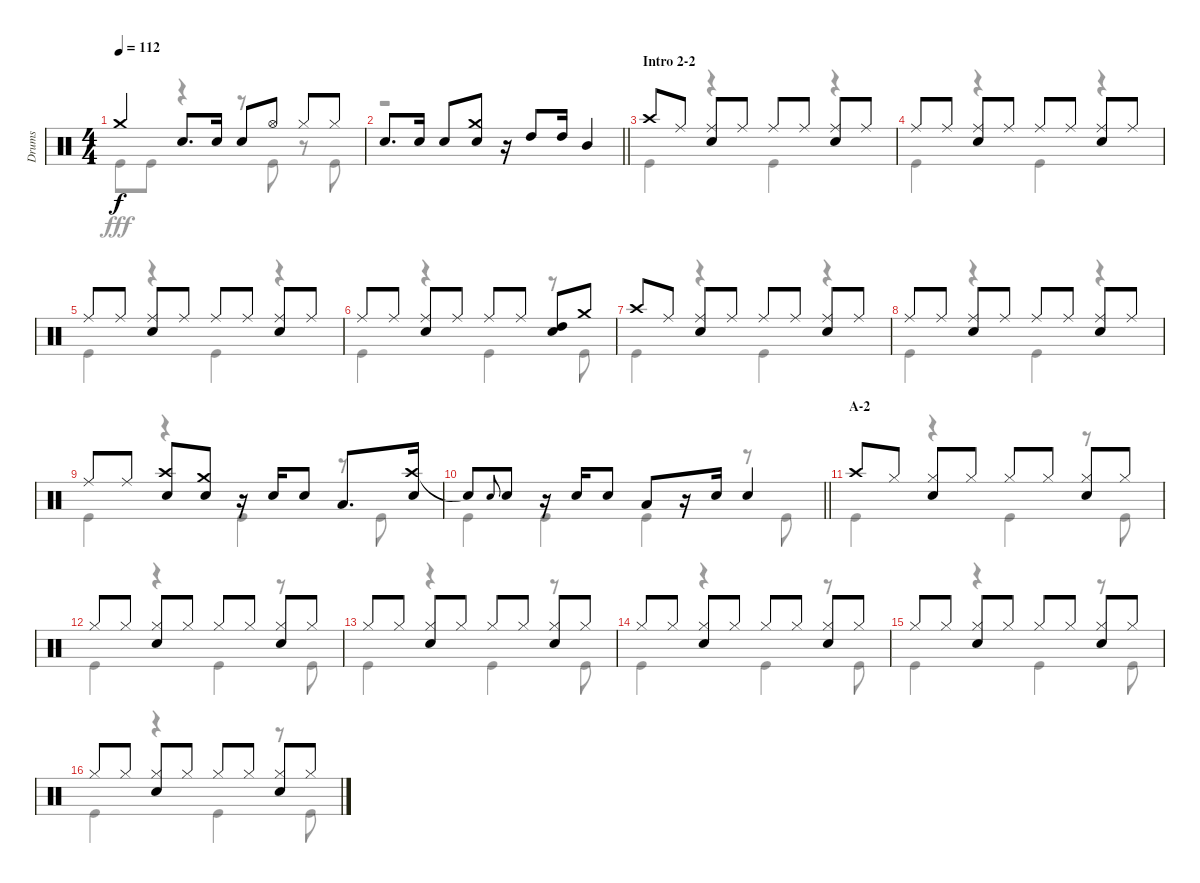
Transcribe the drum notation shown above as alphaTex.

\track ("Drums" "Drums") {instrument percussion}
\staff {score}
\articulation defaults
\voice
\ts (4 4)
\tempo 112
\clef neutral
\ks c "Crash medium (hit)".4{dy f} "Snare (hit) 2".8{d} "Snare (hit) 2".16 "Snare (hit) 2".8 "Hi-Hat (open)".8 "Hi-Hat (closed)".8 "Hi-Hat (closed)".8
|
\barLineRight lightlight "Snare (hit) 2".8{d} "Snare (hit) 2".16 "Snare (hit) 2".8
("Crash medium (hit)" "Snare (hit) 2").8 r.16 "High Tom (hit)".8 "High Tom (hit)".16 "Mid Tom (hit)".4 |
\section ("" "Intro 2-2")
"Crash high (hit)".8 "Ride (middle)".8 ("Ride (middle)" "Snare (hit) 2").8 "Ride (middle)".8 "Ride (middle)".8 "Ride (middle)".8 ("Ride (middle)" "Snare (hit) 2").8 "Ride (middle)".8 |
"Ride (middle)".8 "Ride (middle)".8 ("Ride (middle)" "Snare (hit) 2").8 "Ride (middle)".8 "Ride (middle)".8 "Ride (middle)".8 ("Ride (middle)" "Snare (hit) 2").8 "Ride (middle)".8 |
"Ride (middle)".8 "Ride (middle)".8 ("Ride (middle)" "Snare (hit) 2").8 "Ride (middle)".8 "Ride (middle)".8 "Ride (middle)".8 ("Ride (middle)" "Snare (hit) 2").8 "Ride (middle)".8 |
"Ride (middle)".8 "Ride (middle)".8 ("Ride (middle)" "Snare (hit) 2").8 "Ride (middle)".8 "Ride (middle)".8 "Ride (middle)".8 ("High Tom (hit)" "Snare (hit) 2").8 "Crash medium (hit)".8 |
"Crash high (hit)".8 "Ride (middle)".8 ("Ride (middle)" "Snare (hit) 2").8 "Ride (middle)".8 "Ride (middle)".8 "Ride (middle)".8 ("Ride (middle)" "Snare (hit) 2").8 "Ride (middle)".8 |
"Ride (middle)".8 "Ride (middle)".8 ("Ride (middle)" "Snare (hit) 2").8 "Ride (middle)".8 "Ride (middle)".8 "Ride (middle)".8 ("Ride (middle)" "Snare (hit) 2").8 "Ride (middle)".8 |
"Ride (middle)".8 "Ride (middle)".8 ("Crash high (hit)" "Snare (hit) 2").8 ("Crash medium (hit)" "Snare (hit) 2").8 r.16 "Snare (hit) 2".16 "Snare (hit) 2".8 "Low Tom (hit)".8{d} ("Crash high (hit)" "Snare (hit) 2").16 |
\barLineRight lightlight "Snare (hit)"{t}.8 "Snare (hit) 2".8{gr onbeat} "Snare (hit) 2".8
r.16 "Snare (hit) 2".16 "Snare (hit) 2".8 "Low Tom (hit)".8 r.16 "Snare (hit) 2".16 "Snare (hit) 2".4 |
\section ("" "A-2")
"Crash high (hit)".8 "Hi-Hat (closed)".8 ("Hi-Hat (closed)" "Snare (hit) 2").8 "Hi-Hat (closed)".8 "Hi-Hat (closed)".8 "Hi-Hat (closed)".8 ("Hi-Hat (closed)" "Snare (hit) 2").8 "Hi-Hat (closed)".8 |
"Hi-Hat (closed)".8 "Hi-Hat (closed)".8 ("Hi-Hat (closed)" "Snare (hit) 2").8 "Hi-Hat (closed)".8 "Hi-Hat (closed)".8 "Hi-Hat (closed)".8 ("Hi-Hat (closed)" "Snare (hit) 2").8 "Hi-Hat (closed)".8 |
"Hi-Hat (closed)".8 "Hi-Hat (closed)".8 ("Hi-Hat (closed)" "Snare (hit) 2").8 "Hi-Hat (closed)".8 "Hi-Hat (closed)".8 "Hi-Hat (closed)".8 ("Hi-Hat (closed)" "Snare (hit) 2").8 "Hi-Hat (closed)".8 |
"Hi-Hat (closed)".8 "Hi-Hat (closed)".8 ("Hi-Hat (closed)" "Snare (hit) 2").8 "Hi-Hat (closed)".8 "Hi-Hat (closed)".8 "Hi-Hat (closed)".8 ("Hi-Hat (closed)" "Snare (hit) 2").8 "Hi-Hat (closed)".8 |
"Hi-Hat (closed)".8 "Hi-Hat (closed)".8 ("Hi-Hat (closed)" "Snare (hit) 2").8 "Hi-Hat (closed)".8 "Hi-Hat (closed)".8 "Hi-Hat (closed)".8 ("Hi-Hat (closed)" "Snare (hit) 2").8 "Hi-Hat (closed)".8 |
"Hi-Hat (closed)".8 "Hi-Hat (closed)".8 ("Hi-Hat (closed)" "Snare (hit) 2").8 "Hi-Hat (closed)".8 "Hi-Hat (closed)".8 "Hi-Hat (closed)".8 ("Hi-Hat (closed)" "Snare (hit) 2").8 "Hi-Hat (closed)".8
\voice
\clef neutral
\ottava regular
\simile none
\ks c "Kick (hit)".8{dy fff} "Kick (hit)".8
r.4 r.8 "Kick (hit)".8 r.8 "Kick (hit)".8 |
\barLineRight lightlight
r.1 |
"Kick (hit)".4 r.4 "Kick (hit)".4 r.4 |
"Kick (hit)".4 r.4 "Kick (hit)".4 r.4 |
"Kick (hit)".4 r.4 "Kick (hit)".4 r.4 |
"Kick (hit)".4 r.4 "Kick (hit)".4 r.8 "Kick (hit)".8 |
"Kick (hit)".4 r.4 "Kick (hit)".4 r.4 |
"Kick (hit)".4 r.4 "Kick (hit)".4 r.4 |
"Kick (hit)".4 r.4 "Kick (hit)".4 r.8 "Kick (hit)".8 |
\barLineRight lightlight "Kick (hit)".4 "Kick (hit)".4 "Kick (hit)".4
r.8 "Kick (hit)".8 |
"Kick (hit)".4 r.4 "Kick (hit)".4 r.8 "Kick (hit)".8 |
"Kick (hit)".4 r.4 "Kick (hit)".4 r.8 "Kick (hit)".8 |
"Kick (hit)".4 r.4 "Kick (hit)".4 r.8 "Kick (hit)".8 |
"Kick (hit)".4 r.4 "Kick (hit)".4 r.8 "Kick (hit)".8 |
"Kick (hit)".4 r.4 "Kick (hit)".4 r.8 "Kick (hit)".8 |
"Kick (hit)".4 r.4 "Kick (hit)".4 r.8 "Kick (hit)".8
